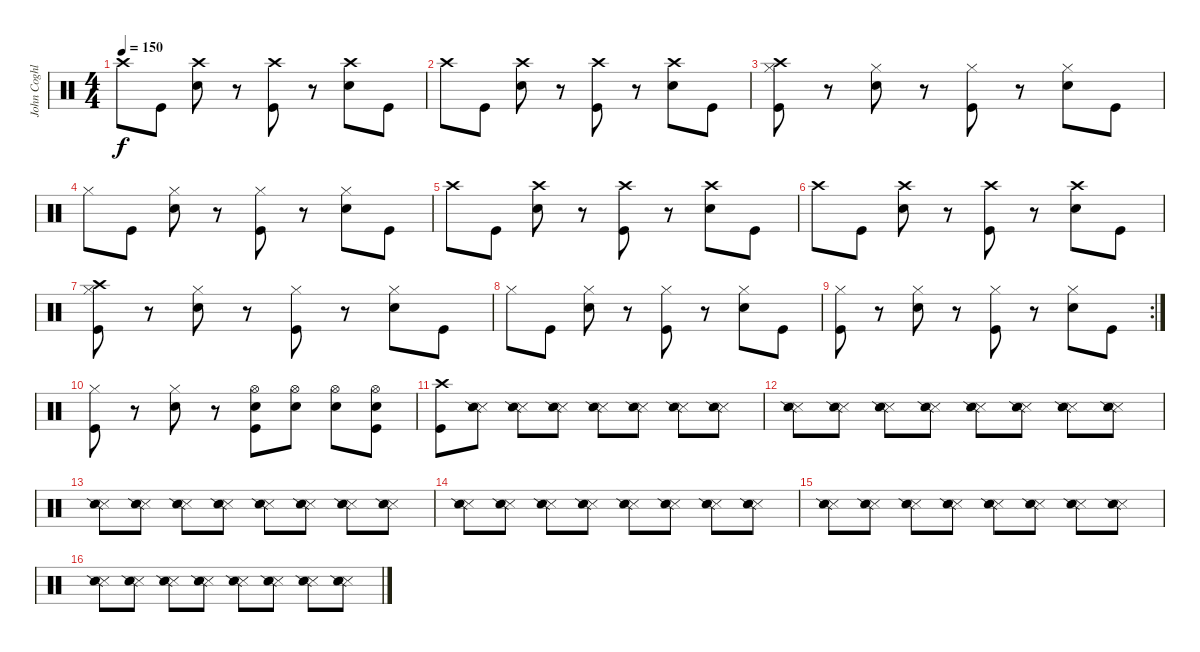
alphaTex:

\track ("John Coghlan" "John Coghl") {instrument percussion}
\staff {score}
\articulation defaults
\ts (4 4)
\tempo 150
\clef neutral
\ks c "Crash high (hit)".8{dy f} "Kick (hit)".8
("Crash high (hit)" "Electric Snare (hit)").8 r.8 ("Crash high (hit)" "Kick (hit)").8 r.8 ("Crash high (hit)" "Electric Snare (hit)").8 "Kick (hit)".8 |
"Crash high (hit)".8 "Kick (hit)".8 ("Electric Snare (hit)" "Crash high (hit)").8 r.8 ("Crash high (hit)" "Kick (hit)").8 r.8 ("Electric Snare (hit)" "Crash high (hit)").8 "Kick (hit)".8 |
("Crash high (hit)" "Hi-Hat (closed)" "Kick (hit)").8 r.8 ("Electric Snare (hit)" "Hi-Hat (closed)").8 r.8 ("Hi-Hat (closed)" "Kick (hit)").8 r.8 ("Electric Snare (hit)" "Hi-Hat (closed)").8 "Kick (hit)".8 |
"Hi-Hat (closed)".8 "Kick (hit)".8 ("Electric Snare (hit)" "Hi-Hat (closed)").8 r.8 ("Hi-Hat (closed)" "Kick (hit)").8 r.8 ("Electric Snare (hit)" "Hi-Hat (closed)").8 "Kick (hit)".8 |
"Crash high (hit)".8 "Kick (hit)".8 ("Crash high (hit)" "Electric Snare (hit)").8 r.8 ("Crash high (hit)" "Kick (hit)").8 r.8 ("Crash high (hit)" "Electric Snare (hit)").8 "Kick (hit)".8 |
"Crash high (hit)".8 "Kick (hit)".8 ("Electric Snare (hit)" "Crash high (hit)").8 r.8 ("Crash high (hit)" "Kick (hit)").8 r.8 ("Electric Snare (hit)" "Crash high (hit)").8 "Kick (hit)".8 |
("Crash high (hit)" "Hi-Hat (closed)" "Kick (hit)").8 r.8 ("Electric Snare (hit)" "Hi-Hat (closed)").8 r.8 ("Hi-Hat (closed)" "Kick (hit)").8 r.8 ("Electric Snare (hit)" "Hi-Hat (closed)").8 "Kick (hit)".8 |
"Hi-Hat (closed)".8 "Kick (hit)".8 ("Electric Snare (hit)" "Hi-Hat (closed)").8 r.8 ("Hi-Hat (closed)" "Kick (hit)").8 r.8 ("Electric Snare (hit)" "Hi-Hat (closed)").8 "Kick (hit)".8 |
\rc 2
("Hi-Hat (closed)" "Kick (hit)").8 r.8 ("Electric Snare (hit)" "Hi-Hat (closed)").8 r.8 ("Hi-Hat (closed)" "Kick (hit)").8 r.8 ("Electric Snare (hit)" "Hi-Hat (closed)").8 "Kick (hit)".8 |
("Hi-Hat (closed)" "Kick (hit)").8 r.8 ("Electric Snare (hit)" "Hi-Hat (closed)").8 r.8 ("Electric Snare (hit)" "Hi-Hat (open)" "Kick (hit)").8 ("Electric Snare (hit)" "Hi-Hat (open)").8 ("Electric Snare (hit)" "Hi-Hat (open)").8 ("Electric Snare (hit)" "Hi-Hat (open)" "Kick (hit)").8 |
("Crash high (hit)" "Kick (hit)").8 ("Snare (side stick) 3" "Snare (side stick) 2").8 ("Snare (side stick) 3" "Snare (side stick) 2").8 ("Snare (side stick) 3" "Snare (side stick) 2").8 ("Snare (side stick) 3" "Snare (side stick) 2").8 ("Snare (side stick) 3" "Snare (side stick) 2").8 ("Snare (side stick) 3" "Snare (side stick) 2").8 ("Snare (side stick) 3" "Snare (side stick) 2").8 |
("Snare (side stick) 3" "Snare (side stick) 2").8 ("Snare (side stick) 3" "Snare (side stick) 2").8 ("Snare (side stick) 3" "Snare (side stick) 2").8 ("Snare (side stick) 3" "Snare (side stick) 2").8 ("Snare (side stick) 3" "Snare (side stick) 2").8 ("Snare (side stick) 3" "Snare (side stick) 2").8 ("Snare (side stick) 3" "Snare (side stick) 2").8 ("Snare (side stick) 3" "Snare (side stick) 2").8 |
("Snare (side stick) 3" "Snare (side stick) 2").8 ("Snare (side stick) 3" "Snare (side stick) 2").8 ("Snare (side stick) 3" "Snare (side stick) 2").8 ("Snare (side stick) 3" "Snare (side stick) 2").8 ("Snare (side stick) 3" "Snare (side stick) 2").8 ("Snare (side stick) 3" "Snare (side stick) 2").8 ("Snare (side stick) 3" "Snare (side stick) 2").8 ("Snare (side stick) 3" "Snare (side stick) 2").8 |
("Snare (side stick) 3" "Snare (side stick) 2").8 ("Snare (side stick) 3" "Snare (side stick) 2").8 ("Snare (side stick) 3" "Snare (side stick) 2").8 ("Snare (side stick) 3" "Snare (side stick) 2").8 ("Snare (side stick) 3" "Snare (side stick) 2").8 ("Snare (side stick) 3" "Snare (side stick) 2").8 ("Snare (side stick) 3" "Snare (side stick) 2").8 ("Snare (side stick) 3" "Snare (side stick) 2").8 |
("Snare (side stick) 3" "Snare (side stick) 2").8 ("Snare (side stick) 3" "Snare (side stick) 2").8 ("Snare (side stick) 3" "Snare (side stick) 2").8 ("Snare (side stick) 3" "Snare (side stick) 2").8 ("Snare (side stick) 3" "Snare (side stick) 2").8 ("Snare (side stick) 3" "Snare (side stick) 2").8 ("Snare (side stick) 3" "Snare (side stick) 2").8 ("Snare (side stick) 3" "Snare (side stick) 2").8 |
("Snare (side stick) 3" "Snare (side stick) 2").8 ("Snare (side stick) 3" "Snare (side stick) 2").8 ("Snare (side stick) 3" "Snare (side stick) 2").8 ("Snare (side stick) 3" "Snare (side stick) 2").8 ("Snare (side stick) 3" "Snare (side stick) 2").8 ("Snare (side stick) 3" "Snare (side stick) 2").8 ("Snare (side stick) 3" "Snare (side stick) 2").8 ("Snare (side stick) 3" "Snare (side stick) 2").8
